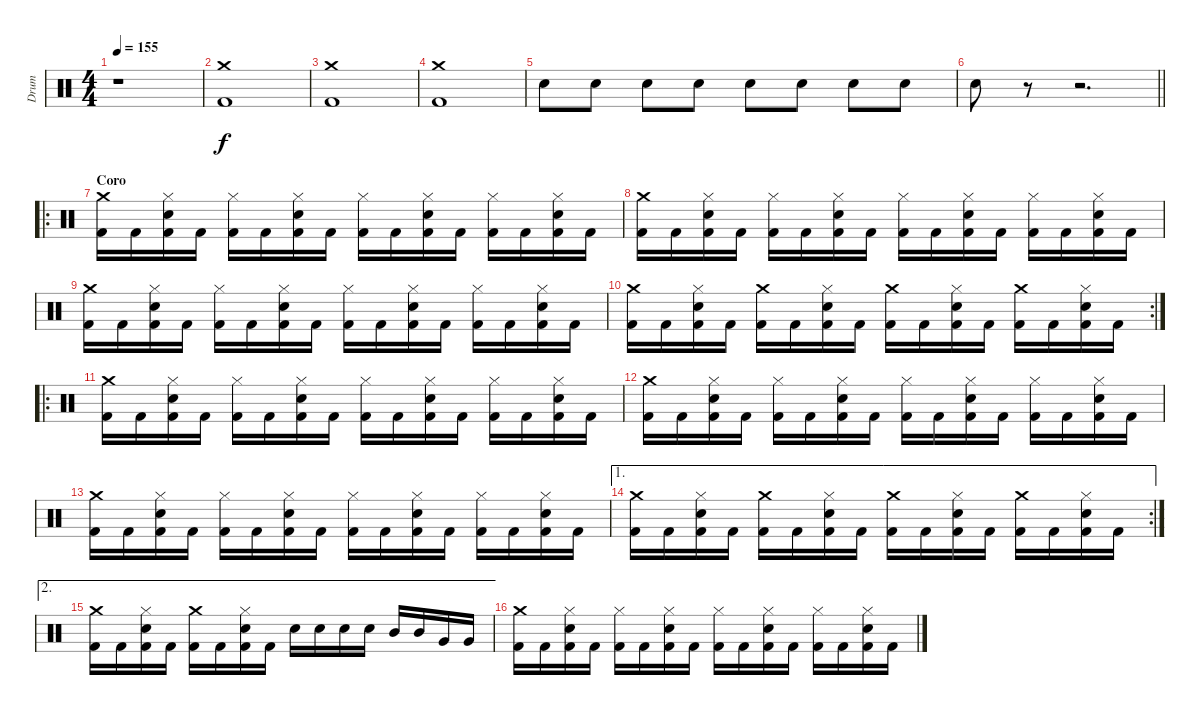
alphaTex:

\track ("Drum" "Drum") {instrument percussion}
\staff {score}
\articulation defaults
\ts (4 4)
\tempo 155
\clef neutral
\ks c
r.1{dy f} |
("Kick (hit) 2" "Crash medium (hit)").1 |
("Kick (hit) 2" "Crash medium (hit)").1 |
("Kick (hit) 2" "Crash medium (hit)").1 |
"Electric Snare (hit)".8 "Electric Snare (hit)".8 "Electric Snare (hit)".8 "Electric Snare (hit)".8 "Electric Snare (hit)".8 "Electric Snare (hit)".8 "Electric Snare (hit)".8 "Electric Snare (hit)".8 |
\barLineRight lightlight "Electric Snare (hit)".8
r.8 r.2{d} |
\ro
\section ("" "Coro")
("Kick (hit) 2" "Crash medium (hit)").16 "Kick (hit) 2".16 ("Kick (hit) 2" "Hi-Hat (closed)" "Electric Snare (hit)").16 "Kick (hit) 2".16 ("Kick (hit) 2" "Hi-Hat (closed)").16 "Kick (hit) 2".16 ("Kick (hit) 2" "Hi-Hat (closed)" "Electric Snare (hit)").16 "Kick (hit) 2".16 ("Kick (hit) 2" "Hi-Hat (closed)").16 "Kick (hit) 2".16 ("Kick (hit) 2" "Hi-Hat (closed)" "Electric Snare (hit)").16 "Kick (hit) 2".16 ("Kick (hit) 2" "Hi-Hat (closed)").16 "Kick (hit) 2".16 ("Kick (hit) 2" "Hi-Hat (closed)" "Electric Snare (hit)").16 "Kick (hit) 2".16 |
("Kick (hit) 2" "Crash medium (hit)").16 "Kick (hit) 2".16 ("Kick (hit) 2" "Hi-Hat (closed)" "Electric Snare (hit)").16 "Kick (hit) 2".16 ("Kick (hit) 2" "Hi-Hat (closed)").16 "Kick (hit) 2".16 ("Kick (hit) 2" "Hi-Hat (closed)" "Electric Snare (hit)").16 "Kick (hit) 2".16 ("Kick (hit) 2" "Hi-Hat (closed)").16 "Kick (hit) 2".16 ("Kick (hit) 2" "Hi-Hat (closed)" "Electric Snare (hit)").16 "Kick (hit) 2".16 ("Kick (hit) 2" "Hi-Hat (closed)").16 "Kick (hit) 2".16 ("Kick (hit) 2" "Hi-Hat (closed)" "Electric Snare (hit)").16 "Kick (hit) 2".16 |
("Kick (hit) 2" "Crash medium (hit)").16 "Kick (hit) 2".16 ("Kick (hit) 2" "Hi-Hat (closed)" "Electric Snare (hit)").16 "Kick (hit) 2".16 ("Kick (hit) 2" "Hi-Hat (closed)").16 "Kick (hit) 2".16 ("Kick (hit) 2" "Hi-Hat (closed)" "Electric Snare (hit)").16 "Kick (hit) 2".16 ("Kick (hit) 2" "Hi-Hat (closed)").16 "Kick (hit) 2".16 ("Kick (hit) 2" "Hi-Hat (closed)" "Electric Snare (hit)").16 "Kick (hit) 2".16 ("Kick (hit) 2" "Hi-Hat (closed)").16 "Kick (hit) 2".16 ("Kick (hit) 2" "Hi-Hat (closed)" "Electric Snare (hit)").16 "Kick (hit) 2".16 |
\rc 2
("Kick (hit) 2" "Crash medium (hit)").16 "Kick (hit) 2".16 ("Kick (hit) 2" "Hi-Hat (closed)" "Electric Snare (hit)").16 "Kick (hit) 2".16 ("Kick (hit) 2" "Crash medium (hit)").16 "Kick (hit) 2".16 ("Kick (hit) 2" "Hi-Hat (closed)" "Electric Snare (hit)").16 "Kick (hit) 2".16 ("Kick (hit) 2" "Crash medium (hit)").16 "Kick (hit) 2".16 ("Kick (hit) 2" "Hi-Hat (closed)" "Electric Snare (hit)").16 "Kick (hit) 2".16 ("Kick (hit) 2" "Crash medium (hit)").16 "Kick (hit) 2".16 ("Kick (hit) 2" "Hi-Hat (closed)" "Electric Snare (hit)").16 "Kick (hit) 2".16 |
\ro
("Kick (hit) 2" "Crash medium (hit)").16 "Kick (hit) 2".16 ("Kick (hit) 2" "Hi-Hat (closed)" "Electric Snare (hit)").16 "Kick (hit) 2".16 ("Kick (hit) 2" "Hi-Hat (closed)").16 "Kick (hit) 2".16 ("Kick (hit) 2" "Hi-Hat (closed)" "Electric Snare (hit)").16 "Kick (hit) 2".16 ("Kick (hit) 2" "Hi-Hat (closed)").16 "Kick (hit) 2".16 ("Kick (hit) 2" "Hi-Hat (closed)" "Electric Snare (hit)").16 "Kick (hit) 2".16 ("Kick (hit) 2" "Hi-Hat (closed)").16 "Kick (hit) 2".16 ("Kick (hit) 2" "Hi-Hat (closed)" "Electric Snare (hit)").16 "Kick (hit) 2".16 |
("Kick (hit) 2" "Crash medium (hit)").16 "Kick (hit) 2".16 ("Kick (hit) 2" "Hi-Hat (closed)" "Electric Snare (hit)").16 "Kick (hit) 2".16 ("Kick (hit) 2" "Hi-Hat (closed)").16 "Kick (hit) 2".16 ("Kick (hit) 2" "Hi-Hat (closed)" "Electric Snare (hit)").16 "Kick (hit) 2".16 ("Kick (hit) 2" "Hi-Hat (closed)").16 "Kick (hit) 2".16 ("Kick (hit) 2" "Hi-Hat (closed)" "Electric Snare (hit)").16 "Kick (hit) 2".16 ("Kick (hit) 2" "Hi-Hat (closed)").16 "Kick (hit) 2".16 ("Kick (hit) 2" "Hi-Hat (closed)" "Electric Snare (hit)").16 "Kick (hit) 2".16 |
("Kick (hit) 2" "Crash medium (hit)").16 "Kick (hit) 2".16 ("Kick (hit) 2" "Hi-Hat (closed)" "Electric Snare (hit)").16 "Kick (hit) 2".16 ("Kick (hit) 2" "Hi-Hat (closed)").16 "Kick (hit) 2".16 ("Kick (hit) 2" "Hi-Hat (closed)" "Electric Snare (hit)").16 "Kick (hit) 2".16 ("Kick (hit) 2" "Hi-Hat (closed)").16 "Kick (hit) 2".16 ("Kick (hit) 2" "Hi-Hat (closed)" "Electric Snare (hit)").16 "Kick (hit) 2".16 ("Kick (hit) 2" "Hi-Hat (closed)").16 "Kick (hit) 2".16 ("Kick (hit) 2" "Hi-Hat (closed)" "Electric Snare (hit)").16 "Kick (hit) 2".16 |
\ae 1
\rc 2
("Kick (hit) 2" "Crash medium (hit)").16 "Kick (hit) 2".16 ("Kick (hit) 2" "Hi-Hat (closed)" "Electric Snare (hit)").16 "Kick (hit) 2".16 ("Kick (hit) 2" "Crash medium (hit)").16 "Kick (hit) 2".16 ("Kick (hit) 2" "Hi-Hat (closed)" "Electric Snare (hit)").16 "Kick (hit) 2".16 ("Kick (hit) 2" "Crash medium (hit)").16 "Kick (hit) 2".16 ("Kick (hit) 2" "Hi-Hat (closed)" "Electric Snare (hit)").16 "Kick (hit) 2".16 ("Kick (hit) 2" "Crash medium (hit)").16 "Kick (hit) 2".16 ("Kick (hit) 2" "Hi-Hat (closed)" "Electric Snare (hit)").16 "Kick (hit) 2".16 |
\ae 2
("Kick (hit) 2" "Crash medium (hit)").16 "Kick (hit) 2".16 ("Kick (hit) 2" "Hi-Hat (closed)" "Electric Snare (hit)").16 "Kick (hit) 2".16 ("Kick (hit) 2" "Crash medium (hit)").16 "Kick (hit) 2".16 ("Kick (hit) 2" "Hi-Hat (closed)" "Electric Snare (hit)").16 "Kick (hit) 2".16 "Electric Snare (hit)".16 "Electric Snare (hit)".16 "Electric Snare (hit)".16 "Electric Snare (hit)".16 "Mid Tom (hit)".16 "Mid Tom (hit)".16 "Very Low Tom (hit)".16 "Very Low Tom (hit)".16 |
("Kick (hit) 2" "Crash medium (hit)").16 "Kick (hit) 2".16 ("Kick (hit) 2" "Hi-Hat (closed)" "Electric Snare (hit)").16 "Kick (hit) 2".16 ("Kick (hit) 2" "Hi-Hat (closed)").16 "Kick (hit) 2".16 ("Kick (hit) 2" "Hi-Hat (closed)" "Electric Snare (hit)").16 "Kick (hit) 2".16 ("Kick (hit) 2" "Hi-Hat (closed)").16 "Kick (hit) 2".16 ("Kick (hit) 2" "Hi-Hat (closed)" "Electric Snare (hit)").16 "Kick (hit) 2".16 ("Kick (hit) 2" "Hi-Hat (closed)").16 "Kick (hit) 2".16 ("Kick (hit) 2" "Hi-Hat (closed)" "Electric Snare (hit)").16 "Kick (hit) 2".16
